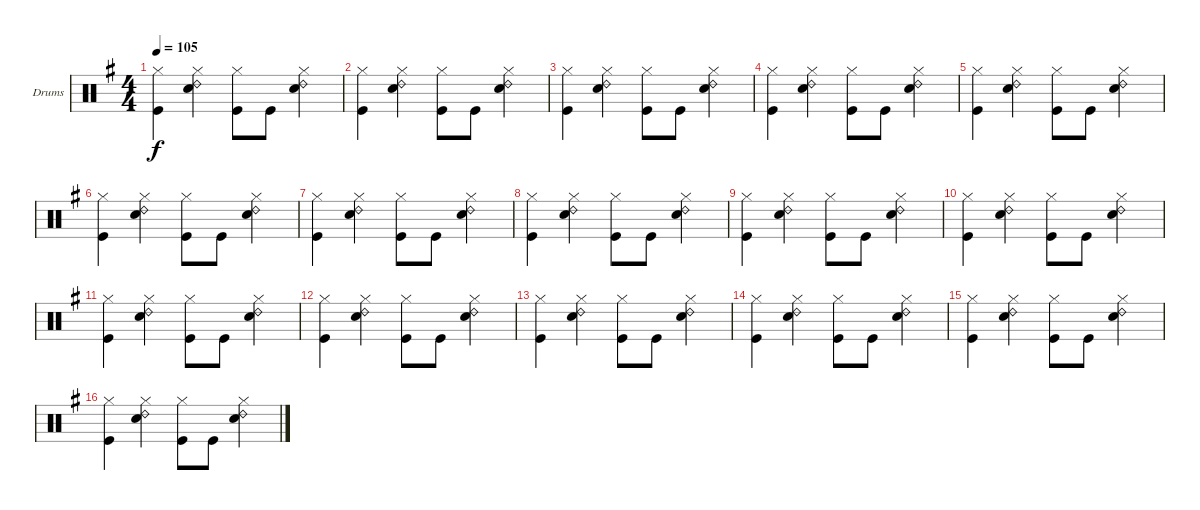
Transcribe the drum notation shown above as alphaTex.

\bracketExtendMode groupsimilarinstruments
\firstSystemTrackNameOrientation horizontal
\otherSystemsTrackNameOrientation horizontal
\track ("Drumkit" "Drums") {instrument percussion}
\staff {score}
\articulation defaults
\ts (4 4)
\tempo 105
\clef neutral
\ks g
("Hi-Hat (closed)" "Kick (hit)").4{dy f} ("Hi-Hat (closed)" "Ride (bell) 2" "Snare (hit) 2").4 ("Hi-Hat (closed)" "Kick (hit)").8 "Kick (hit)".8 ("Hi-Hat (closed)" "Ride (bell) 2" "Snare (hit) 2").4 |
("Hi-Hat (closed)" "Kick (hit)").4 ("Hi-Hat (closed)" "Ride (bell) 2" "Snare (hit) 2").4 ("Hi-Hat (closed)" "Kick (hit)").8 "Kick (hit)".8 ("Hi-Hat (closed)" "Ride (bell) 2" "Snare (hit) 2").4 |
("Hi-Hat (closed)" "Kick (hit)").4 ("Hi-Hat (closed)" "Ride (bell) 2" "Snare (hit) 2").4 ("Hi-Hat (closed)" "Kick (hit)").8 "Kick (hit)".8 ("Hi-Hat (closed)" "Ride (bell) 2" "Snare (hit) 2").4 |
("Hi-Hat (closed)" "Kick (hit)").4 ("Hi-Hat (closed)" "Ride (bell) 2" "Snare (hit) 2").4 ("Hi-Hat (closed)" "Kick (hit)").8 "Kick (hit)".8 ("Hi-Hat (closed)" "Ride (bell) 2" "Snare (hit) 2").4 |
("Hi-Hat (closed)" "Kick (hit)").4 ("Hi-Hat (closed)" "Ride (bell) 2" "Snare (hit) 2").4 ("Hi-Hat (closed)" "Kick (hit)").8 "Kick (hit)".8 ("Hi-Hat (closed)" "Ride (bell) 2" "Snare (hit) 2").4 |
("Hi-Hat (closed)" "Kick (hit)").4 ("Hi-Hat (closed)" "Ride (bell) 2" "Snare (hit) 2").4 ("Hi-Hat (closed)" "Kick (hit)").8 "Kick (hit)".8 ("Hi-Hat (closed)" "Ride (bell) 2" "Snare (hit) 2").4 |
("Hi-Hat (closed)" "Kick (hit)").4 ("Hi-Hat (closed)" "Ride (bell) 2" "Snare (hit) 2").4 ("Hi-Hat (closed)" "Kick (hit)").8 "Kick (hit)".8 ("Hi-Hat (closed)" "Ride (bell) 2" "Snare (hit) 2").4 |
("Hi-Hat (closed)" "Kick (hit)").4 ("Hi-Hat (closed)" "Ride (bell) 2" "Snare (hit) 2").4 ("Hi-Hat (closed)" "Kick (hit)").8 "Kick (hit)".8 ("Hi-Hat (closed)" "Ride (bell) 2" "Snare (hit) 2").4 |
("Hi-Hat (closed)" "Kick (hit)").4 ("Hi-Hat (closed)" "Ride (bell) 2" "Snare (hit) 2").4 ("Hi-Hat (closed)" "Kick (hit)").8 "Kick (hit)".8 ("Hi-Hat (closed)" "Ride (bell) 2" "Snare (hit) 2").4 |
("Hi-Hat (closed)" "Kick (hit)").4 ("Hi-Hat (closed)" "Ride (bell) 2" "Snare (hit) 2").4 ("Hi-Hat (closed)" "Kick (hit)").8 "Kick (hit)".8 ("Hi-Hat (closed)" "Ride (bell) 2" "Snare (hit) 2").4 |
("Hi-Hat (closed)" "Kick (hit)").4 ("Hi-Hat (closed)" "Ride (bell) 2" "Snare (hit) 2").4 ("Hi-Hat (closed)" "Kick (hit)").8 "Kick (hit)".8 ("Hi-Hat (closed)" "Ride (bell) 2" "Snare (hit) 2").4 |
("Hi-Hat (closed)" "Kick (hit)").4 ("Hi-Hat (closed)" "Ride (bell) 2" "Snare (hit) 2").4 ("Hi-Hat (closed)" "Kick (hit)").8 "Kick (hit)".8 ("Hi-Hat (closed)" "Ride (bell) 2" "Snare (hit) 2").4 |
("Hi-Hat (closed)" "Kick (hit)").4 ("Hi-Hat (closed)" "Ride (bell) 2" "Snare (hit) 2").4 ("Hi-Hat (closed)" "Kick (hit)").8 "Kick (hit)".8 ("Hi-Hat (closed)" "Ride (bell) 2" "Snare (hit) 2").4 |
("Hi-Hat (closed)" "Kick (hit)").4 ("Hi-Hat (closed)" "Ride (bell) 2" "Snare (hit) 2").4 ("Hi-Hat (closed)" "Kick (hit)").8 "Kick (hit)".8 ("Hi-Hat (closed)" "Ride (bell) 2" "Snare (hit) 2").4 |
("Hi-Hat (closed)" "Kick (hit)").4 ("Hi-Hat (closed)" "Ride (bell) 2" "Snare (hit) 2").4 ("Hi-Hat (closed)" "Kick (hit)").8 "Kick (hit)".8 ("Hi-Hat (closed)" "Ride (bell) 2" "Snare (hit) 2").4 |
("Hi-Hat (closed)" "Kick (hit)").4 ("Hi-Hat (closed)" "Ride (bell) 2" "Snare (hit) 2").4 ("Hi-Hat (closed)" "Kick (hit)").8 "Kick (hit)".8 ("Hi-Hat (closed)" "Ride (bell) 2" "Snare (hit) 2").4
